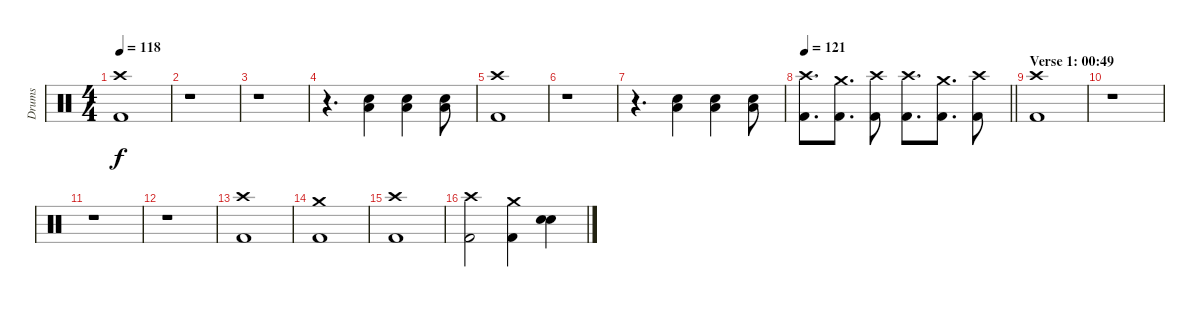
\track ("Drums" "Drums") {instrument percussion}
\staff {score}
\articulation defaults
\ts (4 4)
\tempo 118
\clef neutral
\ks c
("Crash high (hit)" "Kick (hit) 2").1{dy f} |
r.1 |
r.1 |
r.4{d} ("Low Tom (hit)" "Electric Snare (hit)").4 ("Low Tom (hit)" "Electric Snare (hit)").4 ("Low Tom (hit)" "Electric Snare (hit)").8 |
("Crash high (hit)" "Kick (hit) 2").1 |
r.1 |
r.4{d} ("Low Tom (hit)" "Electric Snare (hit)").4 ("Low Tom (hit)" "Electric Snare (hit)").4 ("Low Tom (hit)" "Electric Snare (hit)").8 |
\tempo 121
\barLineRight lightlight
("Crash high (hit)" "Kick (hit) 2").8{d} ("Crash medium (hit)" "Kick (hit) 2").8{d} ("Crash high (hit)" "Kick (hit) 2").8 ("Crash high (hit)" "Kick (hit) 2").8{d} ("Crash medium (hit)" "Kick (hit) 2").8{d} ("Crash high (hit)" "Kick (hit) 2").8 |
\section ("" "Verse 1: 00:49")
("Crash high (hit)" "Kick (hit) 2").1 |
r.1 |
r.1 |
r.1 |
("Crash high (hit)" "Kick (hit) 2").1 |
("Crash medium (hit)" "Kick (hit) 2").1 |
("Crash high (hit)" "Kick (hit) 2").1 |
("Crash high (hit)" "Kick (hit) 2").2 ("Crash medium (hit)" "Kick (hit) 2").4 ("Electric Snare (hit)" "Electric Snare (hit)").4{bd 120}
